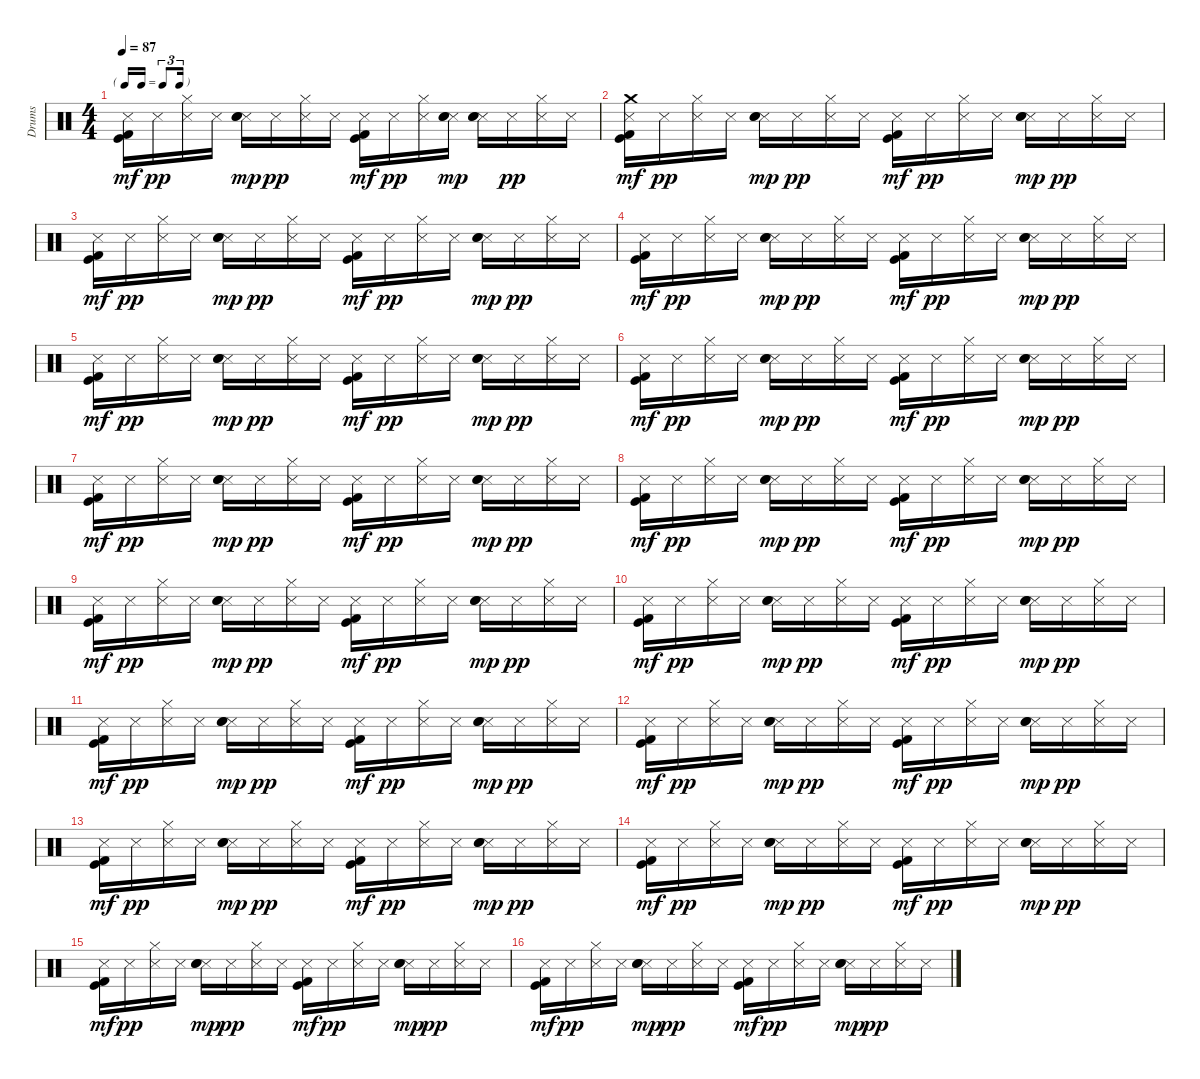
\track ("Drums" "Drums") {instrument percussion}
\staff {score}
\articulation defaults
\ts (4 4)
\tf triplet16th
\tempo 87
\clef neutral
\ks c
("Metronome (hit)" "Kick (hit)" "Kick (hit) 2").16{dy mf} "Metronome (hit)".16{dy pp} ("Hi-Hat (closed)" "Metronome (hit)").16 "Metronome (hit)".16 ("Metronome (hit)" "Electric Snare (hit)" "Snare (hit) 2").16{dy mp} "Metronome (hit)".16{dy pp} ("Hi-Hat (closed)" "Metronome (hit)").16 "Metronome (hit)".16 ("Metronome (hit)" "Kick (hit)" "Kick (hit) 2").16{dy mf} "Metronome (hit)".16{dy pp} ("Hi-Hat (closed)" "Metronome (hit)").16 ("Metronome (hit)" "Electric Snare (hit)" "Snare (hit) 2").16{dy mp} ("Metronome (hit)" "Electric Snare (hit)" "Snare (hit) 2").16 "Metronome (hit)".16{dy pp} ("Hi-Hat (closed)" "Metronome (hit)").16 "Metronome (hit)".16 |
("Metronome (hit)" "Crash medium (hit)" "Kick (hit)" "Kick (hit) 2").16{dy mf} "Metronome (hit)".16{dy pp} ("Hi-Hat (closed)" "Metronome (hit)").16 "Metronome (hit)".16 ("Metronome (hit)" "Electric Snare (hit)" "Snare (hit) 2").16{dy mp} "Metronome (hit)".16{dy pp} ("Hi-Hat (closed)" "Metronome (hit)").16 "Metronome (hit)".16 ("Metronome (hit)" "Kick (hit)" "Kick (hit) 2").16{dy mf} "Metronome (hit)".16{dy pp} ("Hi-Hat (closed)" "Metronome (hit)").16 "Metronome (hit)".16 ("Metronome (hit)" "Electric Snare (hit)" "Snare (hit) 2").16{dy mp} "Metronome (hit)".16{dy pp} ("Hi-Hat (closed)" "Metronome (hit)").16 "Metronome (hit)".16 |
("Metronome (hit)" "Kick (hit)" "Kick (hit) 2").16{dy mf} "Metronome (hit)".16{dy pp} ("Hi-Hat (closed)" "Metronome (hit)").16 "Metronome (hit)".16 ("Metronome (hit)" "Electric Snare (hit)" "Snare (hit) 2").16{dy mp} "Metronome (hit)".16{dy pp} ("Hi-Hat (closed)" "Metronome (hit)").16 "Metronome (hit)".16 ("Metronome (hit)" "Kick (hit)" "Kick (hit) 2").16{dy mf} "Metronome (hit)".16{dy pp} ("Hi-Hat (closed)" "Metronome (hit)").16 "Metronome (hit)".16 ("Metronome (hit)" "Electric Snare (hit)" "Snare (hit) 2").16{dy mp} "Metronome (hit)".16{dy pp} ("Hi-Hat (closed)" "Metronome (hit)").16 "Metronome (hit)".16 |
("Metronome (hit)" "Kick (hit)" "Kick (hit) 2").16{dy mf} "Metronome (hit)".16{dy pp} ("Hi-Hat (closed)" "Metronome (hit)").16 "Metronome (hit)".16 ("Metronome (hit)" "Electric Snare (hit)" "Snare (hit) 2").16{dy mp} "Metronome (hit)".16{dy pp} ("Hi-Hat (closed)" "Metronome (hit)").16 "Metronome (hit)".16 ("Metronome (hit)" "Kick (hit)" "Kick (hit) 2").16{dy mf} "Metronome (hit)".16{dy pp} ("Hi-Hat (closed)" "Metronome (hit)").16 "Metronome (hit)".16 ("Metronome (hit)" "Electric Snare (hit)" "Snare (hit) 2").16{dy mp} "Metronome (hit)".16{dy pp} ("Hi-Hat (closed)" "Metronome (hit)").16 "Metronome (hit)".16 |
("Metronome (hit)" "Kick (hit)" "Kick (hit) 2").16{dy mf} "Metronome (hit)".16{dy pp} ("Hi-Hat (closed)" "Metronome (hit)").16 "Metronome (hit)".16 ("Metronome (hit)" "Electric Snare (hit)" "Snare (hit) 2").16{dy mp} "Metronome (hit)".16{dy pp} ("Hi-Hat (closed)" "Metronome (hit)").16 "Metronome (hit)".16 ("Metronome (hit)" "Kick (hit)" "Kick (hit) 2").16{dy mf} "Metronome (hit)".16{dy pp} ("Hi-Hat (closed)" "Metronome (hit)").16 "Metronome (hit)".16 ("Metronome (hit)" "Electric Snare (hit)" "Snare (hit) 2").16{dy mp} "Metronome (hit)".16{dy pp} ("Hi-Hat (closed)" "Metronome (hit)").16 "Metronome (hit)".16 |
("Metronome (hit)" "Kick (hit)" "Kick (hit) 2").16{dy mf} "Metronome (hit)".16{dy pp} ("Hi-Hat (closed)" "Metronome (hit)").16 "Metronome (hit)".16 ("Metronome (hit)" "Electric Snare (hit)" "Snare (hit) 2").16{dy mp} "Metronome (hit)".16{dy pp} ("Hi-Hat (closed)" "Metronome (hit)").16 "Metronome (hit)".16 ("Metronome (hit)" "Kick (hit)" "Kick (hit) 2").16{dy mf} "Metronome (hit)".16{dy pp} ("Hi-Hat (closed)" "Metronome (hit)").16 "Metronome (hit)".16 ("Metronome (hit)" "Electric Snare (hit)" "Snare (hit) 2").16{dy mp} "Metronome (hit)".16{dy pp} ("Hi-Hat (closed)" "Metronome (hit)").16 "Metronome (hit)".16 |
("Metronome (hit)" "Kick (hit)" "Kick (hit) 2").16{dy mf} "Metronome (hit)".16{dy pp} ("Hi-Hat (closed)" "Metronome (hit)").16 "Metronome (hit)".16 ("Metronome (hit)" "Electric Snare (hit)" "Snare (hit) 2").16{dy mp} "Metronome (hit)".16{dy pp} ("Hi-Hat (closed)" "Metronome (hit)").16 "Metronome (hit)".16 ("Metronome (hit)" "Kick (hit)" "Kick (hit) 2").16{dy mf} "Metronome (hit)".16{dy pp} ("Hi-Hat (closed)" "Metronome (hit)").16 "Metronome (hit)".16 ("Metronome (hit)" "Electric Snare (hit)" "Snare (hit) 2").16{dy mp} "Metronome (hit)".16{dy pp} ("Hi-Hat (closed)" "Metronome (hit)").16 "Metronome (hit)".16 |
("Metronome (hit)" "Kick (hit)" "Kick (hit) 2").16{dy mf} "Metronome (hit)".16{dy pp} ("Hi-Hat (closed)" "Metronome (hit)").16 "Metronome (hit)".16 ("Metronome (hit)" "Electric Snare (hit)" "Snare (hit) 2").16{dy mp} "Metronome (hit)".16{dy pp} ("Hi-Hat (closed)" "Metronome (hit)").16 "Metronome (hit)".16 ("Metronome (hit)" "Kick (hit)" "Kick (hit) 2").16{dy mf} "Metronome (hit)".16{dy pp} ("Hi-Hat (closed)" "Metronome (hit)").16 "Metronome (hit)".16 ("Metronome (hit)" "Electric Snare (hit)" "Snare (hit) 2").16{dy mp} "Metronome (hit)".16{dy pp} ("Hi-Hat (closed)" "Metronome (hit)").16 "Metronome (hit)".16 |
("Metronome (hit)" "Kick (hit)" "Kick (hit) 2").16{dy mf} "Metronome (hit)".16{dy pp} ("Hi-Hat (closed)" "Metronome (hit)").16 "Metronome (hit)".16 ("Metronome (hit)" "Electric Snare (hit)" "Snare (hit) 2").16{dy mp} "Metronome (hit)".16{dy pp} ("Hi-Hat (closed)" "Metronome (hit)").16 "Metronome (hit)".16 ("Metronome (hit)" "Kick (hit)" "Kick (hit) 2").16{dy mf} "Metronome (hit)".16{dy pp} ("Hi-Hat (closed)" "Metronome (hit)").16 "Metronome (hit)".16 ("Metronome (hit)" "Electric Snare (hit)" "Snare (hit) 2").16{dy mp} "Metronome (hit)".16{dy pp} ("Hi-Hat (closed)" "Metronome (hit)").16 "Metronome (hit)".16 |
("Metronome (hit)" "Kick (hit)" "Kick (hit) 2").16{dy mf} "Metronome (hit)".16{dy pp} ("Hi-Hat (closed)" "Metronome (hit)").16 "Metronome (hit)".16 ("Metronome (hit)" "Electric Snare (hit)" "Snare (hit) 2").16{dy mp} "Metronome (hit)".16{dy pp} ("Hi-Hat (closed)" "Metronome (hit)").16 "Metronome (hit)".16 ("Metronome (hit)" "Kick (hit)" "Kick (hit) 2").16{dy mf} "Metronome (hit)".16{dy pp} ("Hi-Hat (closed)" "Metronome (hit)").16 "Metronome (hit)".16 ("Metronome (hit)" "Electric Snare (hit)" "Snare (hit) 2").16{dy mp} "Metronome (hit)".16{dy pp} ("Hi-Hat (closed)" "Metronome (hit)").16 "Metronome (hit)".16 |
("Metronome (hit)" "Kick (hit)" "Kick (hit) 2").16{dy mf} "Metronome (hit)".16{dy pp} ("Hi-Hat (closed)" "Metronome (hit)").16 "Metronome (hit)".16 ("Metronome (hit)" "Electric Snare (hit)" "Snare (hit) 2").16{dy mp} "Metronome (hit)".16{dy pp} ("Hi-Hat (closed)" "Metronome (hit)").16 "Metronome (hit)".16 ("Metronome (hit)" "Kick (hit)" "Kick (hit) 2").16{dy mf} "Metronome (hit)".16{dy pp} ("Hi-Hat (closed)" "Metronome (hit)").16 "Metronome (hit)".16 ("Metronome (hit)" "Electric Snare (hit)" "Snare (hit) 2").16{dy mp} "Metronome (hit)".16{dy pp} ("Hi-Hat (closed)" "Metronome (hit)").16 "Metronome (hit)".16 |
("Metronome (hit)" "Kick (hit)" "Kick (hit) 2").16{dy mf} "Metronome (hit)".16{dy pp} ("Hi-Hat (closed)" "Metronome (hit)").16 "Metronome (hit)".16 ("Metronome (hit)" "Electric Snare (hit)" "Snare (hit) 2").16{dy mp} "Metronome (hit)".16{dy pp} ("Hi-Hat (closed)" "Metronome (hit)").16 "Metronome (hit)".16 ("Metronome (hit)" "Kick (hit)" "Kick (hit) 2").16{dy mf} "Metronome (hit)".16{dy pp} ("Hi-Hat (closed)" "Metronome (hit)").16 "Metronome (hit)".16 ("Metronome (hit)" "Electric Snare (hit)" "Snare (hit) 2").16{dy mp} "Metronome (hit)".16{dy pp} ("Hi-Hat (closed)" "Metronome (hit)").16 "Metronome (hit)".16 |
("Metronome (hit)" "Kick (hit)" "Kick (hit) 2").16{dy mf} "Metronome (hit)".16{dy pp} ("Hi-Hat (closed)" "Metronome (hit)").16 "Metronome (hit)".16 ("Metronome (hit)" "Electric Snare (hit)" "Snare (hit) 2").16{dy mp} "Metronome (hit)".16{dy pp} ("Hi-Hat (closed)" "Metronome (hit)").16 "Metronome (hit)".16 ("Metronome (hit)" "Kick (hit)" "Kick (hit) 2").16{dy mf} "Metronome (hit)".16{dy pp} ("Hi-Hat (closed)" "Metronome (hit)").16 "Metronome (hit)".16 ("Metronome (hit)" "Electric Snare (hit)" "Snare (hit) 2").16{dy mp} "Metronome (hit)".16{dy pp} ("Hi-Hat (closed)" "Metronome (hit)").16 "Metronome (hit)".16 |
("Metronome (hit)" "Kick (hit)" "Kick (hit) 2").16{dy mf} "Metronome (hit)".16{dy pp} ("Hi-Hat (closed)" "Metronome (hit)").16 "Metronome (hit)".16 ("Metronome (hit)" "Electric Snare (hit)" "Snare (hit) 2").16{dy mp} "Metronome (hit)".16{dy pp} ("Hi-Hat (closed)" "Metronome (hit)").16 "Metronome (hit)".16 ("Metronome (hit)" "Kick (hit)" "Kick (hit) 2").16{dy mf} "Metronome (hit)".16{dy pp} ("Hi-Hat (closed)" "Metronome (hit)").16 "Metronome (hit)".16 ("Metronome (hit)" "Electric Snare (hit)" "Snare (hit) 2").16{dy mp} "Metronome (hit)".16{dy pp} ("Hi-Hat (closed)" "Metronome (hit)").16 "Metronome (hit)".16 |
("Metronome (hit)" "Kick (hit)" "Kick (hit) 2").16{dy mf} "Metronome (hit)".16{dy pp} ("Hi-Hat (closed)" "Metronome (hit)").16 "Metronome (hit)".16 ("Metronome (hit)" "Electric Snare (hit)" "Snare (hit) 2").16{dy mp} "Metronome (hit)".16{dy pp} ("Hi-Hat (closed)" "Metronome (hit)").16 "Metronome (hit)".16 ("Metronome (hit)" "Kick (hit)" "Kick (hit) 2").16{dy mf} "Metronome (hit)".16{dy pp} ("Hi-Hat (closed)" "Metronome (hit)").16 "Metronome (hit)".16 ("Metronome (hit)" "Electric Snare (hit)" "Snare (hit) 2").16{dy mp} "Metronome (hit)".16{dy pp} ("Hi-Hat (closed)" "Metronome (hit)").16 "Metronome (hit)".16 |
("Metronome (hit)" "Kick (hit)" "Kick (hit) 2").16{dy mf} "Metronome (hit)".16{dy pp} ("Hi-Hat (closed)" "Metronome (hit)").16 "Metronome (hit)".16 ("Metronome (hit)" "Electric Snare (hit)" "Snare (hit) 2").16{dy mp} "Metronome (hit)".16{dy pp} ("Hi-Hat (closed)" "Metronome (hit)").16 "Metronome (hit)".16 ("Metronome (hit)" "Kick (hit)" "Kick (hit) 2").16{dy mf} "Metronome (hit)".16{dy pp} ("Hi-Hat (closed)" "Metronome (hit)").16 "Metronome (hit)".16 ("Metronome (hit)" "Electric Snare (hit)" "Snare (hit) 2").16{dy mp} "Metronome (hit)".16{dy pp} ("Hi-Hat (closed)" "Metronome (hit)").16 "Metronome (hit)".16
